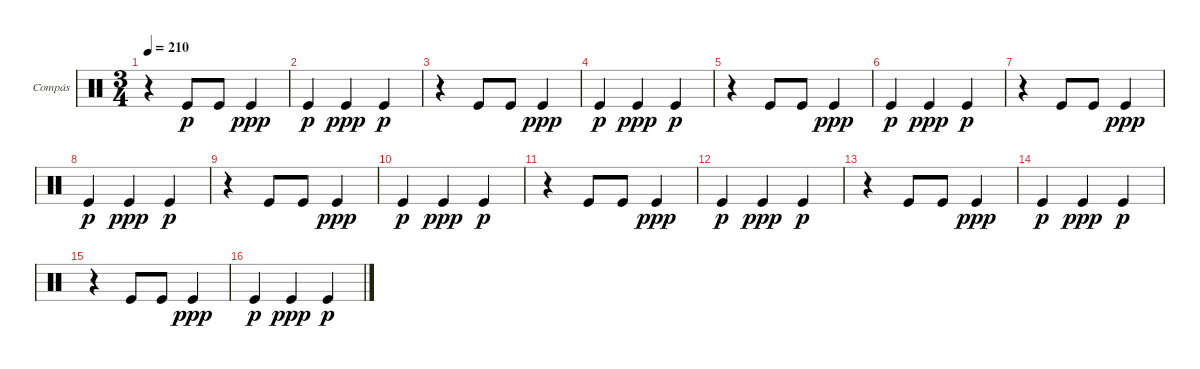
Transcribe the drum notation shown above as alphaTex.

\defaultSystemsLayout 4
\bracketExtendMode groupsimilarinstruments
\firstSystemTrackNameOrientation horizontal
\otherSystemsTrackNameOrientation horizontal
\track ("Compás" "Compás") {instrument percussion}
\staff {score}
\articulation defaults
\ts (3 4)
\tempo 210
\clef neutral
\scale
0.25
\ks c
r.4{dy p} "Kick (hit)".8 "Kick (hit)".8 "Kick (hit)".4{dy ppp} |
\scale
0.25 "Kick (hit)".4{dy p} "Kick (hit)".4{dy ppp} "Kick (hit)".4{dy p} |
\scale
0.25 r.4 "Kick (hit)".8 "Kick (hit)".8 "Kick (hit)".4{dy ppp} |
\scale
0.25 "Kick (hit)".4{dy p} "Kick (hit)".4{dy ppp} "Kick (hit)".4{dy p} |
\scale
0.25 r.4 "Kick (hit)".8 "Kick (hit)".8 "Kick (hit)".4{dy ppp} |
\scale
0.25 "Kick (hit)".4{dy p} "Kick (hit)".4{dy ppp} "Kick (hit)".4{dy p} |
\scale
0.25 r.4 "Kick (hit)".8 "Kick (hit)".8 "Kick (hit)".4{dy ppp} |
\scale
0.25 "Kick (hit)".4{dy p} "Kick (hit)".4{dy ppp} "Kick (hit)".4{dy p} |
r.4 "Kick (hit)".8 "Kick (hit)".8 "Kick (hit)".4{dy ppp} |
"Kick (hit)".4{dy p} "Kick (hit)".4{dy ppp} "Kick (hit)".4{dy p} |
r.4 "Kick (hit)".8 "Kick (hit)".8 "Kick (hit)".4{dy ppp} |
"Kick (hit)".4{dy p} "Kick (hit)".4{dy ppp} "Kick (hit)".4{dy p} |
r.4 "Kick (hit)".8 "Kick (hit)".8 "Kick (hit)".4{dy ppp} |
"Kick (hit)".4{dy p} "Kick (hit)".4{dy ppp} "Kick (hit)".4{dy p} |
r.4 "Kick (hit)".8 "Kick (hit)".8 "Kick (hit)".4{dy ppp} |
"Kick (hit)".4{dy p} "Kick (hit)".4{dy ppp} "Kick (hit)".4{dy p}
